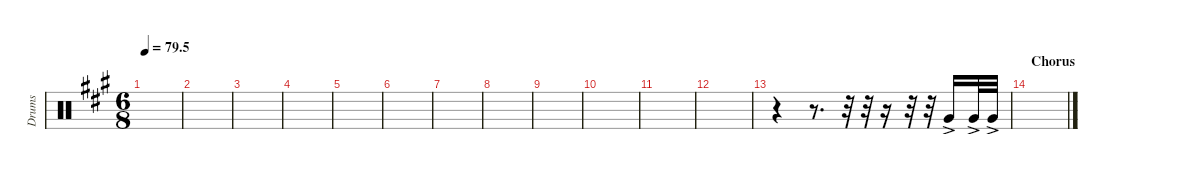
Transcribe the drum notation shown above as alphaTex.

\defaultSystemsLayout 4
\hideDynamics
\bracketExtendMode nobrackets
\otherSystemsTrackNameOrientation horizontal
\track ("Tom 04" "Drums") {instrument percussion}
\staff {score}
\articulation defaults
\ts (6 8)
\tempo
79.5
\accidentals auto
\clef neutral
\ottava regular
\simile none
\scale
0.333333
\ks a
|
\scale
0.333333 |
\scale
0.333333 |
\scale
0.333333 |
\scale
0.333333 |
\scale
0.333333 |
\scale
0.333333 |
\scale
0.333333 |
\scale
0.333333 |
\scale
0.333333 |
\scale
0.333333 |
\scale
0.333333 |
\scale
0.333333 r.4 r.8{d} r.32 r.32 r.16 r.32 r.32 "Very Low Tom (hit)"{ac acc forcenatural}.16 "Very Low Tom (hit)"{ac acc forcenatural}.32 "Very Low Tom (hit)"{ac acc forcenatural}.32 |
\section ("" "Chorus")
\scale
0.333333 |
\scale
0.333333 |
\scale
0.333333
